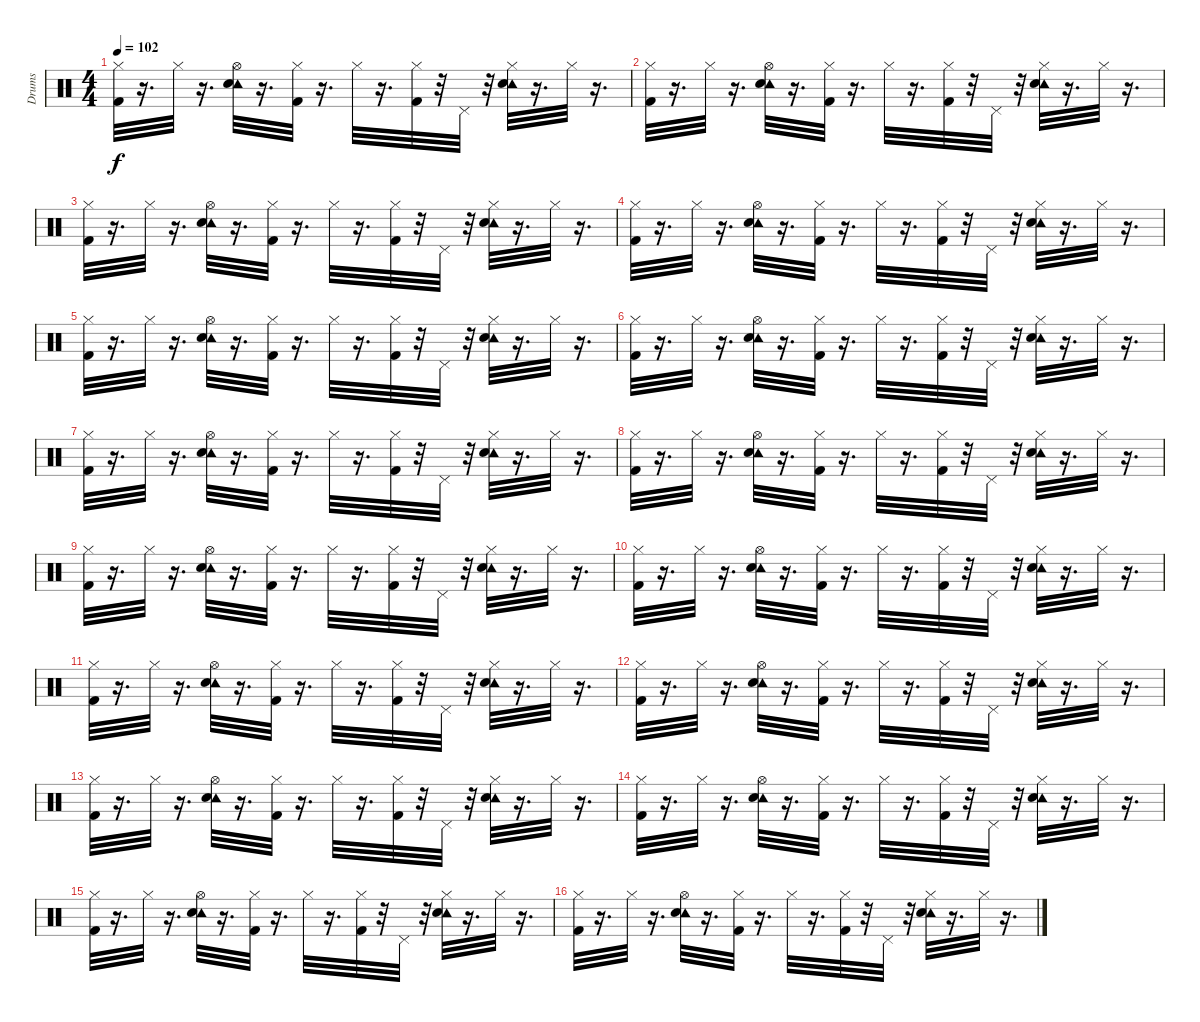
\track ("Drums" "Drums") {instrument percussion}
\staff {score}
\articulation defaults
\ts (4 4)
\tempo 102
\clef neutral
\ks c
("Hi-Hat (closed)" "Kick (hit) 2").32{dy f} r.16{d} "Hi-Hat (closed)".32 r.16{d} ("Tambourine (hit)" "Hi-Hat (open)" "Electric Snare (hit)").32 r.16{d} ("Hi-Hat (closed)" "Kick (hit) 2").32 r.16{d} "Hi-Hat (closed)".32 r.16{d} ("Hi-Hat (closed)" "Kick (hit) 2").32 r.32 "Pedal Hi-Hat (hit)".32 r.32 ("Tambourine (hit)" "Hi-Hat (closed)" "Electric Snare (hit)").32 r.16{d} "Hi-Hat (closed)".32 r.16{d} |
("Hi-Hat (closed)" "Kick (hit) 2").32 r.16{d} "Hi-Hat (closed)".32 r.16{d} ("Tambourine (hit)" "Hi-Hat (open)" "Electric Snare (hit)").32 r.16{d} ("Hi-Hat (closed)" "Kick (hit) 2").32 r.16{d} "Hi-Hat (closed)".32 r.16{d} ("Hi-Hat (closed)" "Kick (hit) 2").32 r.32 "Pedal Hi-Hat (hit)".32 r.32 ("Tambourine (hit)" "Hi-Hat (closed)" "Electric Snare (hit)").32 r.16{d} "Hi-Hat (closed)".32 r.16{d} |
("Hi-Hat (closed)" "Kick (hit) 2").32 r.16{d} "Hi-Hat (closed)".32 r.16{d} ("Tambourine (hit)" "Hi-Hat (open)" "Electric Snare (hit)").32 r.16{d} ("Hi-Hat (closed)" "Kick (hit) 2").32 r.16{d} "Hi-Hat (closed)".32 r.16{d} ("Hi-Hat (closed)" "Kick (hit) 2").32 r.32 "Pedal Hi-Hat (hit)".32 r.32 ("Tambourine (hit)" "Hi-Hat (closed)" "Electric Snare (hit)").32 r.16{d} "Hi-Hat (closed)".32 r.16{d} |
("Hi-Hat (closed)" "Kick (hit) 2").32 r.16{d} "Hi-Hat (closed)".32 r.16{d} ("Tambourine (hit)" "Hi-Hat (open)" "Electric Snare (hit)").32 r.16{d} ("Hi-Hat (closed)" "Kick (hit) 2").32 r.16{d} "Hi-Hat (closed)".32 r.16{d} ("Hi-Hat (closed)" "Kick (hit) 2").32 r.32 "Pedal Hi-Hat (hit)".32 r.32 ("Tambourine (hit)" "Hi-Hat (closed)" "Electric Snare (hit)").32 r.16{d} "Hi-Hat (closed)".32 r.16{d} |
("Hi-Hat (closed)" "Kick (hit) 2").32 r.16{d} "Hi-Hat (closed)".32 r.16{d} ("Tambourine (hit)" "Hi-Hat (open)" "Electric Snare (hit)").32 r.16{d} ("Hi-Hat (closed)" "Kick (hit) 2").32 r.16{d} "Hi-Hat (closed)".32 r.16{d} ("Hi-Hat (closed)" "Kick (hit) 2").32 r.32 "Pedal Hi-Hat (hit)".32 r.32 ("Tambourine (hit)" "Hi-Hat (closed)" "Electric Snare (hit)").32 r.16{d} "Hi-Hat (closed)".32 r.16{d} |
("Hi-Hat (closed)" "Kick (hit) 2").32 r.16{d} "Hi-Hat (closed)".32 r.16{d} ("Tambourine (hit)" "Hi-Hat (open)" "Electric Snare (hit)").32 r.16{d} ("Hi-Hat (closed)" "Kick (hit) 2").32 r.16{d} "Hi-Hat (closed)".32 r.16{d} ("Hi-Hat (closed)" "Kick (hit) 2").32 r.32 "Pedal Hi-Hat (hit)".32 r.32 ("Tambourine (hit)" "Hi-Hat (closed)" "Electric Snare (hit)").32 r.16{d} "Hi-Hat (closed)".32 r.16{d} |
("Hi-Hat (closed)" "Kick (hit) 2").32 r.16{d} "Hi-Hat (closed)".32 r.16{d} ("Tambourine (hit)" "Hi-Hat (open)" "Electric Snare (hit)").32 r.16{d} ("Hi-Hat (closed)" "Kick (hit) 2").32 r.16{d} "Hi-Hat (closed)".32 r.16{d} ("Hi-Hat (closed)" "Kick (hit) 2").32 r.32 "Pedal Hi-Hat (hit)".32 r.32 ("Tambourine (hit)" "Hi-Hat (closed)" "Electric Snare (hit)").32 r.16{d} "Hi-Hat (closed)".32 r.16{d} |
("Hi-Hat (closed)" "Kick (hit) 2").32 r.16{d} "Hi-Hat (closed)".32 r.16{d} ("Tambourine (hit)" "Hi-Hat (open)" "Electric Snare (hit)").32 r.16{d} ("Hi-Hat (closed)" "Kick (hit) 2").32 r.16{d} "Hi-Hat (closed)".32 r.16{d} ("Hi-Hat (closed)" "Kick (hit) 2").32 r.32 "Pedal Hi-Hat (hit)".32 r.32 ("Tambourine (hit)" "Hi-Hat (closed)" "Electric Snare (hit)").32 r.16{d} "Hi-Hat (closed)".32 r.16{d} |
("Hi-Hat (closed)" "Kick (hit) 2").32 r.16{d} "Hi-Hat (closed)".32 r.16{d} ("Tambourine (hit)" "Hi-Hat (open)" "Electric Snare (hit)").32 r.16{d} ("Hi-Hat (closed)" "Kick (hit) 2").32 r.16{d} "Hi-Hat (closed)".32 r.16{d} ("Hi-Hat (closed)" "Kick (hit) 2").32 r.32 "Pedal Hi-Hat (hit)".32 r.32 ("Tambourine (hit)" "Hi-Hat (closed)" "Electric Snare (hit)").32 r.16{d} "Hi-Hat (closed)".32 r.16{d} |
("Hi-Hat (closed)" "Kick (hit) 2").32 r.16{d} "Hi-Hat (closed)".32 r.16{d} ("Tambourine (hit)" "Hi-Hat (open)" "Electric Snare (hit)").32 r.16{d} ("Hi-Hat (closed)" "Kick (hit) 2").32 r.16{d} "Hi-Hat (closed)".32 r.16{d} ("Hi-Hat (closed)" "Kick (hit) 2").32 r.32 "Pedal Hi-Hat (hit)".32 r.32 ("Tambourine (hit)" "Hi-Hat (closed)" "Electric Snare (hit)").32 r.16{d} "Hi-Hat (closed)".32 r.16{d} |
("Hi-Hat (closed)" "Kick (hit) 2").32 r.16{d} "Hi-Hat (closed)".32 r.16{d} ("Tambourine (hit)" "Hi-Hat (open)" "Electric Snare (hit)").32 r.16{d} ("Hi-Hat (closed)" "Kick (hit) 2").32 r.16{d} "Hi-Hat (closed)".32 r.16{d} ("Hi-Hat (closed)" "Kick (hit) 2").32 r.32 "Pedal Hi-Hat (hit)".32 r.32 ("Tambourine (hit)" "Hi-Hat (closed)" "Electric Snare (hit)").32 r.16{d} "Hi-Hat (closed)".32 r.16{d} |
("Hi-Hat (closed)" "Kick (hit) 2").32 r.16{d} "Hi-Hat (closed)".32 r.16{d} ("Tambourine (hit)" "Hi-Hat (open)" "Electric Snare (hit)").32 r.16{d} ("Hi-Hat (closed)" "Kick (hit) 2").32 r.16{d} "Hi-Hat (closed)".32 r.16{d} ("Hi-Hat (closed)" "Kick (hit) 2").32 r.32 "Pedal Hi-Hat (hit)".32 r.32 ("Tambourine (hit)" "Hi-Hat (closed)" "Electric Snare (hit)").32 r.16{d} "Hi-Hat (closed)".32 r.16{d} |
("Hi-Hat (closed)" "Kick (hit) 2").32 r.16{d} "Hi-Hat (closed)".32 r.16{d} ("Tambourine (hit)" "Hi-Hat (open)" "Electric Snare (hit)").32 r.16{d} ("Hi-Hat (closed)" "Kick (hit) 2").32 r.16{d} "Hi-Hat (closed)".32 r.16{d} ("Hi-Hat (closed)" "Kick (hit) 2").32 r.32 "Pedal Hi-Hat (hit)".32 r.32 ("Tambourine (hit)" "Hi-Hat (closed)" "Electric Snare (hit)").32 r.16{d} "Hi-Hat (closed)".32 r.16{d} |
("Hi-Hat (closed)" "Kick (hit) 2").32 r.16{d} "Hi-Hat (closed)".32 r.16{d} ("Tambourine (hit)" "Hi-Hat (open)" "Electric Snare (hit)").32 r.16{d} ("Hi-Hat (closed)" "Kick (hit) 2").32 r.16{d} "Hi-Hat (closed)".32 r.16{d} ("Hi-Hat (closed)" "Kick (hit) 2").32 r.32 "Pedal Hi-Hat (hit)".32 r.32 ("Tambourine (hit)" "Hi-Hat (closed)" "Electric Snare (hit)").32 r.16{d} "Hi-Hat (closed)".32 r.16{d} |
("Hi-Hat (closed)" "Kick (hit) 2").32 r.16{d} "Hi-Hat (closed)".32 r.16{d} ("Tambourine (hit)" "Hi-Hat (open)" "Electric Snare (hit)").32 r.16{d} ("Hi-Hat (closed)" "Kick (hit) 2").32 r.16{d} "Hi-Hat (closed)".32 r.16{d} ("Hi-Hat (closed)" "Kick (hit) 2").32 r.32 "Pedal Hi-Hat (hit)".32 r.32 ("Tambourine (hit)" "Hi-Hat (closed)" "Electric Snare (hit)").32 r.16{d} "Hi-Hat (closed)".32 r.16{d} |
("Hi-Hat (closed)" "Kick (hit) 2").32 r.16{d} "Hi-Hat (closed)".32 r.16{d} ("Tambourine (hit)" "Hi-Hat (open)" "Electric Snare (hit)").32 r.16{d} ("Hi-Hat (closed)" "Kick (hit) 2").32 r.16{d} "Hi-Hat (closed)".32 r.16{d} ("Hi-Hat (closed)" "Kick (hit) 2").32 r.32 "Pedal Hi-Hat (hit)".32 r.32 ("Tambourine (hit)" "Hi-Hat (closed)" "Electric Snare (hit)").32 r.16{d} "Hi-Hat (closed)".32 r.16{d}
